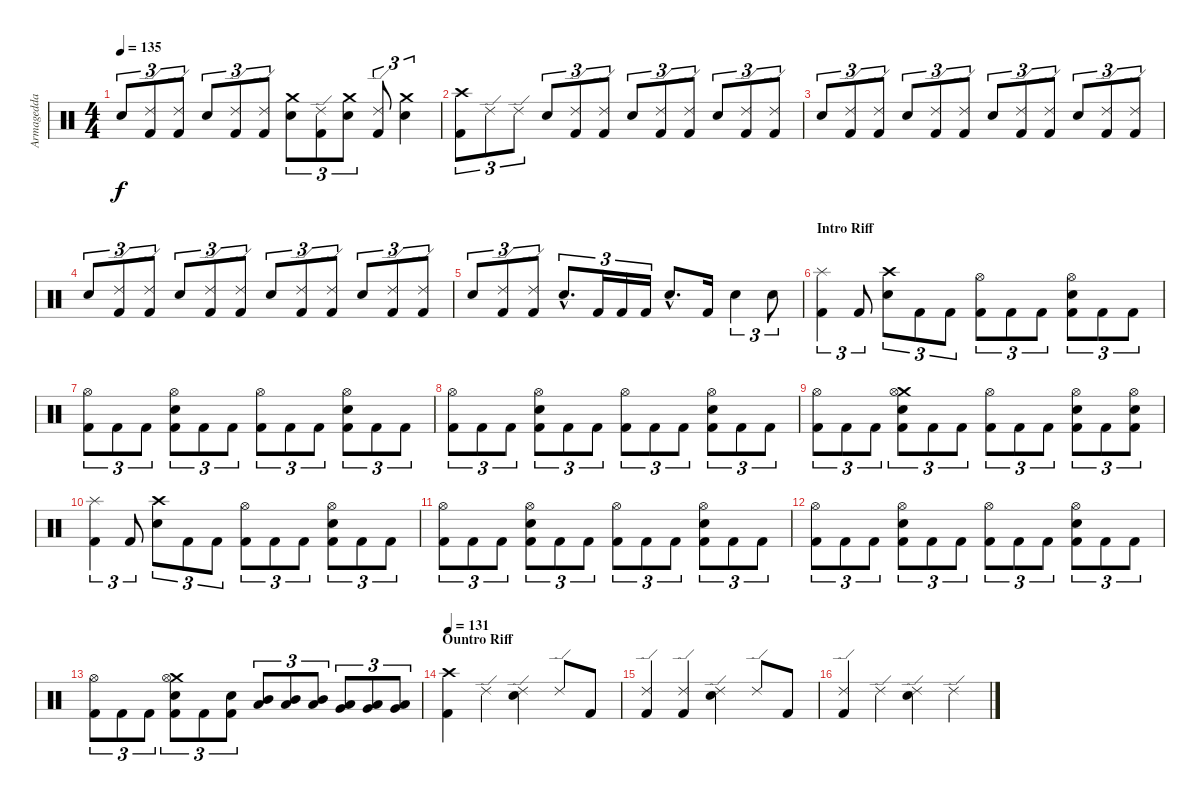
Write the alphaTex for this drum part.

\track ("Armagedda" "Armagedda") {instrument percussion}
\staff {score}
\articulation defaults
\ts (4 4)
\tempo 135
\clef neutral
\ks c "Electric Snare (hit)".8{tu (3 2) dy f}
("Ride (edge) 2" "Kick (hit) 2").8{tu (3 2)} ("Ride (edge) 2" "Kick (hit) 2").8{tu (3 2)} "Electric Snare (hit)".8{tu (3 2)} ("Ride (edge) 2" "Kick (hit) 2").8{tu (3 2)} ("Ride (edge) 2" "Kick (hit) 2").8{tu (3 2)} ("Crash medium (hit)" "Electric Snare (hit)").8{tu (3 2)} ("Ride (edge) 2" "Kick (hit) 2").8{tu (3 2)} ("Crash medium (hit)" "Electric Snare (hit)").8{tu (3 2)} ("Ride (edge) 2" "Kick (hit) 2").8{tu (3 2)} ("Crash medium (hit)" "Electric Snare (hit)").4{tu (3 2)} |
("Crash high (hit)" "Kick (hit) 2").8{tu (3 2)} "Ride (edge) 2".8{tu (3 2)} "Ride (edge) 2".8{tu (3 2)} "Electric Snare (hit)".8{tu (3 2)} ("Ride (edge) 2" "Kick (hit) 2").8{tu (3 2)} ("Ride (edge) 2" "Kick (hit) 2").8{tu (3 2)} "Electric Snare (hit)".8{tu (3 2)} ("Ride (edge) 2" "Kick (hit) 2").8{tu (3 2)} ("Ride (edge) 2" "Kick (hit) 2").8{tu (3 2)} "Electric Snare (hit)".8{tu (3 2)} ("Ride (edge) 2" "Kick (hit) 2").8{tu (3 2)} ("Ride (edge) 2" "Kick (hit) 2").8{tu (3 2)} |
"Electric Snare (hit)".8{tu (3 2)} ("Ride (edge) 2" "Kick (hit) 2").8{tu (3 2)} ("Ride (edge) 2" "Kick (hit) 2").8{tu (3 2)} "Electric Snare (hit)".8{tu (3 2)} ("Ride (edge) 2" "Kick (hit) 2").8{tu (3 2)} ("Ride (edge) 2" "Kick (hit) 2").8{tu (3 2)} "Electric Snare (hit)".8{tu (3 2)} ("Ride (edge) 2" "Kick (hit) 2").8{tu (3 2)} ("Ride (edge) 2" "Kick (hit) 2").8{tu (3 2)} "Electric Snare (hit)".8{tu (3 2)} ("Ride (edge) 2" "Kick (hit) 2").8{tu (3 2)} ("Ride (edge) 2" "Kick (hit) 2").8{tu (3 2)} |
"Electric Snare (hit)".8{tu (3 2)} ("Ride (edge) 2" "Kick (hit) 2").8{tu (3 2)} ("Ride (edge) 2" "Kick (hit) 2").8{tu (3 2)} "Electric Snare (hit)".8{tu (3 2)} ("Ride (edge) 2" "Kick (hit) 2").8{tu (3 2)} ("Ride (edge) 2" "Kick (hit) 2").8{tu (3 2)} "Electric Snare (hit)".8{tu (3 2)} ("Ride (edge) 2" "Kick (hit) 2").8{tu (3 2)} ("Ride (edge) 2" "Kick (hit) 2").8{tu (3 2)} "Electric Snare (hit)".8{tu (3 2)} ("Ride (edge) 2" "Kick (hit) 2").8{tu (3 2)} ("Ride (edge) 2" "Kick (hit) 2").8{tu (3 2)} |
"Electric Snare (hit)".8{tu (3 2)} ("Ride (edge) 2" "Kick (hit) 2").8{tu (3 2)} ("Ride (edge) 2" "Kick (hit) 2").8{tu (3 2)} "Electric Snare (hit)"{hac}.8{d tu (3 2)} "Kick (hit) 2".16{tu (3 2)} "Kick (hit) 2".16{tu (3 2)} "Kick (hit) 2".16{tu (3 2)} "Electric Snare (hit)"{hac}.8{d} "Kick (hit) 2".16 "Electric Snare (hit)".4{tu (3 2)} "Electric Snare (hit)".8{tu (3 2)} |
\section ("" "Intro Riff")
("Splash (hit)" "Kick (hit) 2").4{tu (3 2)} "Kick (hit) 2".8{tu (3 2)} ("Crash high (hit)" "Electric Snare (hit)").8{tu (3 2)} "Kick (hit) 2".8{tu (3 2)} "Kick (hit) 2".8{tu (3 2)} ("Hi-Hat (open)" "Kick (hit) 2").8{tu (3 2)} "Kick (hit) 2".8{tu (3 2)} "Kick (hit) 2".8{tu (3 2)} ("Hi-Hat (open)" "Electric Snare (hit)" "Kick (hit) 2").8{tu (3 2)} "Kick (hit) 2".8{tu (3 2)} "Kick (hit) 2".8{tu (3 2)} |
("Hi-Hat (open)" "Kick (hit) 2").8{tu (3 2)} "Kick (hit) 2".8{tu (3 2)} "Kick (hit) 2".8{tu (3 2)} ("Hi-Hat (open)" "Electric Snare (hit)" "Kick (hit) 2").8{tu (3 2)} "Kick (hit) 2".8{tu (3 2)} "Kick (hit) 2".8{tu (3 2)} ("Hi-Hat (open)" "Kick (hit) 2").8{tu (3 2)} "Kick (hit) 2".8{tu (3 2)} "Kick (hit) 2".8{tu (3 2)} ("Hi-Hat (open)" "Electric Snare (hit)" "Kick (hit) 2").8{tu (3 2)} "Kick (hit) 2".8{tu (3 2)} "Kick (hit) 2".8{tu (3 2)} |
("Hi-Hat (open)" "Kick (hit) 2").8{tu (3 2)} "Kick (hit) 2".8{tu (3 2)} "Kick (hit) 2".8{tu (3 2)} ("Hi-Hat (open)" "Electric Snare (hit)" "Kick (hit) 2").8{tu (3 2)} "Kick (hit) 2".8{tu (3 2)} "Kick (hit) 2".8{tu (3 2)} ("Hi-Hat (open)" "Kick (hit) 2").8{tu (3 2)} "Kick (hit) 2".8{tu (3 2)} "Kick (hit) 2".8{tu (3 2)} ("Hi-Hat (open)" "Electric Snare (hit)" "Kick (hit) 2").8{tu (3 2)} "Kick (hit) 2".8{tu (3 2)} "Kick (hit) 2".8{tu (3 2)} |
("Hi-Hat (open)" "Kick (hit) 2").8{tu (3 2)} "Kick (hit) 2".8{tu (3 2)} "Kick (hit) 2".8{tu (3 2)} ("Crash medium (hit)" "Hi-Hat (open)" "Electric Snare (hit)" "Kick (hit) 2").8{tu (3 2)} "Kick (hit) 2".8{tu (3 2)} "Kick (hit) 2".8{tu (3 2)} ("Hi-Hat (open)" "Kick (hit) 2").8{tu (3 2)} "Kick (hit) 2".8{tu (3 2)} "Kick (hit) 2".8{tu (3 2)} ("Hi-Hat (open)" "Electric Snare (hit)" "Kick (hit) 2").8{tu (3 2)} "Kick (hit) 2".8{tu (3 2)} ("Hi-Hat (open)" "Electric Snare (hit)" "Kick (hit) 2").8{tu (3 2)} |
("Splash (hit)" "Kick (hit) 2").4{tu (3 2)} "Kick (hit) 2".8{tu (3 2)} ("Crash high (hit)" "Electric Snare (hit)").8{tu (3 2)} "Kick (hit) 2".8{tu (3 2)} "Kick (hit) 2".8{tu (3 2)} ("Hi-Hat (open)" "Kick (hit) 2").8{tu (3 2)} "Kick (hit) 2".8{tu (3 2)} "Kick (hit) 2".8{tu (3 2)} ("Hi-Hat (open)" "Electric Snare (hit)" "Kick (hit) 2").8{tu (3 2)} "Kick (hit) 2".8{tu (3 2)} "Kick (hit) 2".8{tu (3 2)} |
("Hi-Hat (open)" "Kick (hit) 2").8{tu (3 2)} "Kick (hit) 2".8{tu (3 2)} "Kick (hit) 2".8{tu (3 2)} ("Hi-Hat (open)" "Electric Snare (hit)" "Kick (hit) 2").8{tu (3 2)} "Kick (hit) 2".8{tu (3 2)} "Kick (hit) 2".8{tu (3 2)} ("Hi-Hat (open)" "Kick (hit) 2").8{tu (3 2)} "Kick (hit) 2".8{tu (3 2)} "Kick (hit) 2".8{tu (3 2)} ("Hi-Hat (open)" "Electric Snare (hit)" "Kick (hit) 2").8{tu (3 2)} "Kick (hit) 2".8{tu (3 2)} "Kick (hit) 2".8{tu (3 2)} |
("Hi-Hat (open)" "Kick (hit) 2").8{tu (3 2)} "Kick (hit) 2".8{tu (3 2)} "Kick (hit) 2".8{tu (3 2)} ("Hi-Hat (open)" "Electric Snare (hit)" "Kick (hit) 2").8{tu (3 2)} "Kick (hit) 2".8{tu (3 2)} "Kick (hit) 2".8{tu (3 2)} ("Hi-Hat (open)" "Kick (hit) 2").8{tu (3 2)} "Kick (hit) 2".8{tu (3 2)} "Kick (hit) 2".8{tu (3 2)} ("Hi-Hat (open)" "Electric Snare (hit)" "Kick (hit) 2").8{tu (3 2)} "Kick (hit) 2".8{tu (3 2)} "Kick (hit) 2".8{tu (3 2)} |
("Hi-Hat (open)" "Kick (hit) 2").8{tu (3 2)} "Kick (hit) 2".8{tu (3 2)} "Kick (hit) 2".8{tu (3 2)} ("Crash medium (hit)" "Hi-Hat (open)" "Electric Snare (hit)" "Kick (hit) 2").8{tu (3 2)} "Kick (hit) 2".8{tu (3 2)} ("Electric Snare (hit)" "Kick (hit) 2").8{tu (3 2)} ("Mid Tom (hit)" "Low Tom (hit)").8{tu (3 2)} ("Mid Tom (hit)" "Low Tom (hit)").8{tu (3 2)} ("Mid Tom (hit)" "Low Tom (hit)").8{tu (3 2)} ("Low Tom (hit)" "Very Low Tom (hit)").8{tu (3 2)} ("Low Tom (hit)" "Very Low Tom (hit)").8{tu (3 2)} ("Low Tom (hit)" "Very Low Tom (hit)").8{tu (3 2)} |
\section ("" "Ountro Riff")
\tempo 131
("Crash high (hit)" "Kick (hit) 2").4 "Ride (edge) 2".4 ("Ride (edge) 2" "Electric Snare (hit)").4 "Ride (edge) 2".8 "Kick (hit) 2".8 |
("Ride (edge) 2" "Kick (hit) 2").4 ("Ride (edge) 2" "Kick (hit) 2").4 ("Ride (edge) 2" "Electric Snare (hit)").4 "Ride (edge) 2".8 "Kick (hit) 2".8 |
("Ride (edge) 2" "Kick (hit) 2").4 "Ride (edge) 2".4 ("Ride (edge) 2" "Electric Snare (hit)").4 "Ride (edge) 2".4
